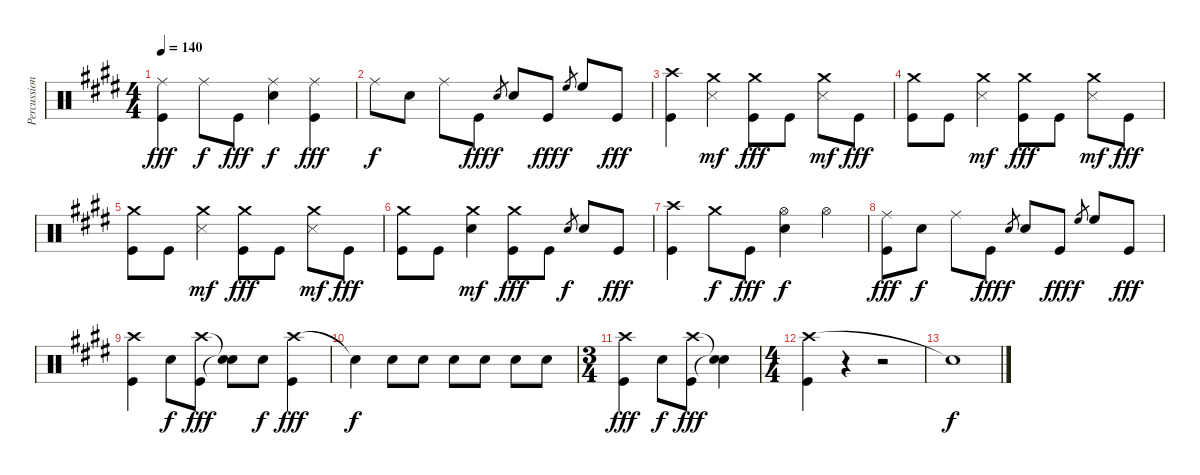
\track ("Percussion" "Percussion") {instrument percussion}
\staff {score}
\articulation defaults
\ts (4 4)
\tempo 140
\clef neutral
\ks e
("Ride (middle)" "Kick (hit)").4{dy fff} "Ride (middle)".8{dy f} "Kick (hit)".8{dy fff} ("Ride (middle)" "Snare (hit) 2").4{dy f} ("Ride (middle)" "Kick (hit)").4{dy fff} |
"Ride (middle)".8{dy f} "Snare (hit) 2".8 "Ride (middle)".8 "Kick (hit)".8{dy fff} "Snare (hit) 2".8{gr dy f} "Snare (hit) 2".8 "Kick (hit)".8{dy fff} "High Floor Tom (hit)".8{gr dy f} "High Floor Tom (hit)".8 "Kick (hit)".8{dy fff} |
("Crash high (hit)" "Kick (hit)").4 ("Crash medium (hit)" "Snare (side stick) 3").4{dy mf} ("Crash medium (hit)" "Kick (hit)").8{dy fff} "Kick (hit)".8 ("Crash medium (hit)" "Snare (side stick) 3").8{dy mf} "Kick (hit)".8{dy fff} |
("Crash medium (hit)" "Kick (hit)").8 "Kick (hit)".8 ("Crash medium (hit)" "Snare (side stick) 3").4{dy mf} ("Crash medium (hit)" "Kick (hit)").8{dy fff} "Kick (hit)".8 ("Crash medium (hit)" "Snare (side stick) 3").8{dy mf} "Kick (hit)".8{dy fff} |
("Crash medium (hit)" "Kick (hit)").8 "Kick (hit)".8 ("Crash medium (hit)" "Snare (side stick) 3").4{dy mf} ("Crash medium (hit)" "Kick (hit)").8{dy fff} "Kick (hit)".8 ("Crash medium (hit)" "Snare (side stick) 3").8{dy mf} "Kick (hit)".8{dy fff} |
("Crash medium (hit)" "Kick (hit)").8 "Kick (hit)".8 ("Crash medium (hit)" "Snare (hit) 2").4{dy mf} ("Crash medium (hit)" "Kick (hit)").8{dy fff} "Kick (hit)".8 "Snare (hit) 2".8{gr dy f} "Snare (hit) 2".8 "Kick (hit)".8{dy fff} |
("Crash high (hit)" "Kick (hit)").4 "Crash medium (hit)".8{dy f} "Kick (hit)".8{dy fff} ("Hi-Hat (open)" "Snare (hit) 2").4{dy f} "Hi-Hat (open)".4 |
("Ride (middle)" "Kick (hit)").8{dy fff} "Snare (hit) 2".8{dy f} "Ride (middle)".8 "Kick (hit)".8{dy fff} "Snare (hit) 2".8{gr dy f} "Snare (hit) 2".8 "Kick (hit)".8{dy fff} "High Floor Tom (hit)".8{gr dy f} "High Floor Tom (hit)".8 "Kick (hit)".8{dy fff} |
("Crash high (hit)" "Kick (hit)").4 "Snare (hit) 2".8{dy f} ("Crash high (hit)" "Kick (hit)").8{dy fff} ("Snare (hit)"{t} "Snare (hit)"{t}).8 "Snare (hit) 2".8{dy f} ("Crash high (hit)" "Kick (hit)").4{dy fff} |
"Snare (hit)"{t}.4{dy f} "Snare (hit) 2".8 "Snare (hit) 2".8 "Snare (hit) 2".8 "Snare (hit) 2".8 "Snare (hit) 2".8 "Snare (hit) 2".8 |
\ts (3 4)
("Crash high (hit)" "Kick (hit)").4{dy fff} "Snare (hit) 2".8{dy f} ("Crash high (hit)" "Kick (hit)").8{dy fff} ("Snare (hit)"{t} "Snare (hit)"{t}).4 |
\ts (4 4)
("Crash high (hit)" "Kick (hit)").4 r.4 r.2 |
"Snare (hit)"{t}.1{dy f}
